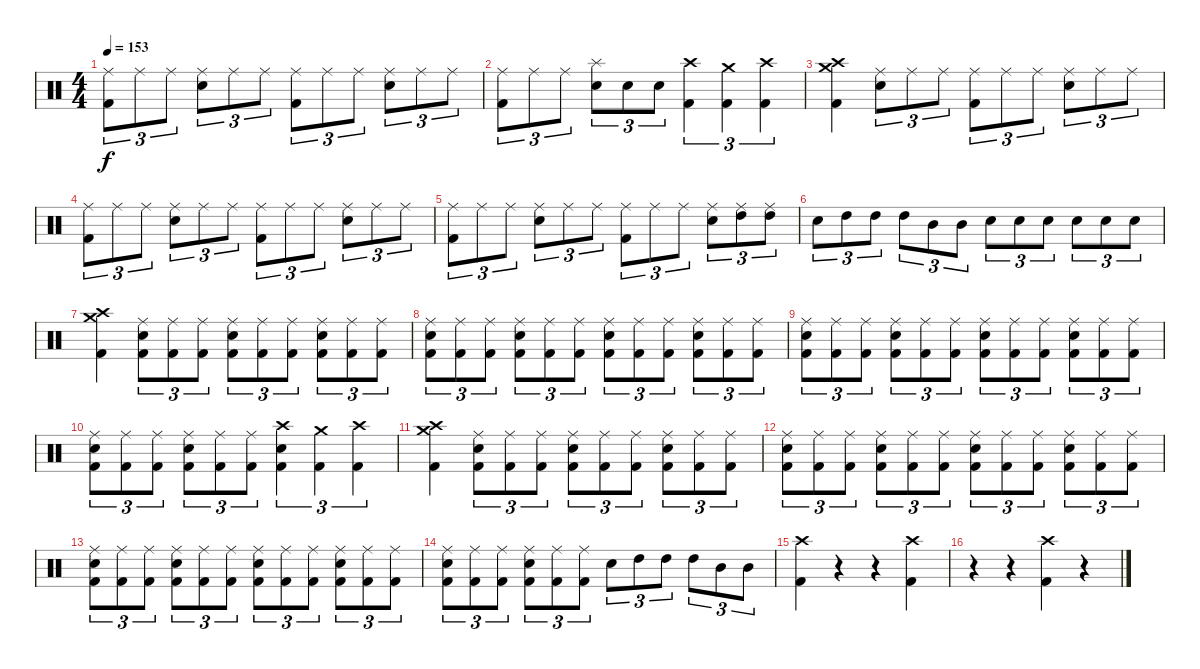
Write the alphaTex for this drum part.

\track "" {instrument percussion}
\staff {score}
\articulation defaults
\ts (4 4)
\tempo 153
\clef neutral
\ks c
("Ride (middle)" "Kick (hit) 2").8{tu (3 2) dy f} "Ride (middle)".8{tu (3 2)} "Ride (middle)".8{tu (3 2)} ("Ride (middle)" "Electric Snare (hit)").8{tu (3 2)} "Ride (middle)".8{tu (3 2)} "Ride (middle)".8{tu (3 2)} ("Ride (middle)" "Kick (hit) 2").8{tu (3 2)} "Ride (middle)".8{tu (3 2)} "Ride (middle)".8{tu (3 2)} ("Ride (middle)" "Electric Snare (hit)").8{tu (3 2)} "Ride (middle)".8{tu (3 2)} "Ride (middle)".8{tu (3 2)} |
("Ride (middle)" "Kick (hit) 2").8{tu (3 2)} "Ride (middle)".8{tu (3 2)} "Ride (middle)".8{tu (3 2)} ("Splash (hit)" "Electric Snare (hit)").8{tu (3 2)} "Electric Snare (hit)".8{tu (3 2)} "Electric Snare (hit)".8{tu (3 2)} ("Crash high (hit)" "Kick (hit) 2").4{tu (3 2)} ("Crash medium (hit)" "Kick (hit) 2").4{tu (3 2)} ("Crash high (hit)" "Kick (hit) 2").4{tu (3 2)} |
("Crash high (hit)" "Crash medium (hit)" "Kick (hit) 2").4 ("Ride (middle)" "Electric Snare (hit)").8{tu (3 2)} "Ride (middle)".8{tu (3 2)} "Ride (middle)".8{tu (3 2)} ("Ride (middle)" "Kick (hit) 2").8{tu (3 2)} "Ride (middle)".8{tu (3 2)} "Ride (middle)".8{tu (3 2)} ("Ride (middle)" "Electric Snare (hit)").8{tu (3 2)} "Ride (middle)".8{tu (3 2)} "Ride (middle)".8{tu (3 2)} |
("Ride (middle)" "Kick (hit) 2").8{tu (3 2)} "Ride (middle)".8{tu (3 2)} "Ride (middle)".8{tu (3 2)} ("Ride (middle)" "Electric Snare (hit)").8{tu (3 2)} "Ride (middle)".8{tu (3 2)} "Ride (middle)".8{tu (3 2)} ("Ride (middle)" "Kick (hit) 2").8{tu (3 2)} "Ride (middle)".8{tu (3 2)} "Ride (middle)".8{tu (3 2)} ("Ride (middle)" "Electric Snare (hit)").8{tu (3 2)} "Ride (middle)".8{tu (3 2)} "Ride (middle)".8{tu (3 2)} |
("Ride (middle)" "Kick (hit) 2").8{tu (3 2)} "Ride (middle)".8{tu (3 2)} "Ride (middle)".8{tu (3 2)} ("Ride (middle)" "Electric Snare (hit)").8{tu (3 2)} "Ride (middle)".8{tu (3 2)} "Ride (middle)".8{tu (3 2)} ("Ride (middle)" "Kick (hit) 2").8{tu (3 2)} "Ride (middle)".8{tu (3 2)} "Ride (middle)".8{tu (3 2)} ("Ride (middle)" "Electric Snare (hit)").8{tu (3 2)} ("Ride (middle)" "High Tom (hit)").8{tu (3 2)} ("Ride (middle)" "High Tom (hit)").8{tu (3 2)} |
"Electric Snare (hit)".8{tu (3 2)} "High Tom (hit)".8{tu (3 2)} "High Tom (hit)".8{tu (3 2)} "High Tom (hit)".8{tu (3 2)} "Mid Tom (hit)".8{tu (3 2)} "Mid Tom (hit)".8{tu (3 2)} "Electric Snare (hit)".8{tu (3 2)} "Electric Snare (hit)".8{tu (3 2)} "Electric Snare (hit)".8{tu (3 2)} "Electric Snare (hit)".8{tu (3 2)} "Electric Snare (hit)".8{tu (3 2)} "Electric Snare (hit)".8{tu (3 2)} |
\section ("" "")
("Crash high (hit)" "Crash medium (hit)" "Kick (hit) 2").4 ("Ride (middle)" "Electric Snare (hit)" "Kick (hit) 2").8{tu (3 2)} ("Ride (middle)" "Kick (hit) 2").8{tu (3 2)} ("Ride (middle)" "Kick (hit) 2").8{tu (3 2)} ("Ride (middle)" "Electric Snare (hit)" "Kick (hit) 2").8{tu (3 2)} ("Ride (middle)" "Kick (hit) 2").8{tu (3 2)} ("Ride (middle)" "Kick (hit) 2").8{tu (3 2)} ("Ride (middle)" "Electric Snare (hit)" "Kick (hit) 2").8{tu (3 2)} ("Ride (middle)" "Kick (hit) 2").8{tu (3 2)} ("Ride (middle)" "Kick (hit) 2").8{tu (3 2)} |
("Ride (middle)" "Electric Snare (hit)" "Kick (hit) 2").8{tu (3 2)} ("Ride (middle)" "Kick (hit) 2").8{tu (3 2)} ("Ride (middle)" "Kick (hit) 2").8{tu (3 2)} ("Ride (middle)" "Electric Snare (hit)" "Kick (hit) 2").8{tu (3 2)} ("Ride (middle)" "Kick (hit) 2").8{tu (3 2)} ("Ride (middle)" "Kick (hit) 2").8{tu (3 2)} ("Ride (middle)" "Electric Snare (hit)" "Kick (hit) 2").8{tu (3 2)} ("Ride (middle)" "Kick (hit) 2").8{tu (3 2)} ("Ride (middle)" "Kick (hit) 2").8{tu (3 2)} ("Ride (middle)" "Electric Snare (hit)" "Kick (hit) 2").8{tu (3 2)} ("Ride (middle)" "Kick (hit) 2").8{tu (3 2)} ("Ride (middle)" "Kick (hit) 2").8{tu (3 2)} |
("Ride (middle)" "Electric Snare (hit)" "Kick (hit) 2").8{tu (3 2)} ("Ride (middle)" "Kick (hit) 2").8{tu (3 2)} ("Ride (middle)" "Kick (hit) 2").8{tu (3 2)} ("Ride (middle)" "Electric Snare (hit)" "Kick (hit) 2").8{tu (3 2)} ("Ride (middle)" "Kick (hit) 2").8{tu (3 2)} ("Ride (middle)" "Kick (hit) 2").8{tu (3 2)} ("Ride (middle)" "Electric Snare (hit)" "Kick (hit) 2").8{tu (3 2)} ("Ride (middle)" "Kick (hit) 2").8{tu (3 2)} ("Ride (middle)" "Kick (hit) 2").8{tu (3 2)} ("Ride (middle)" "Electric Snare (hit)" "Kick (hit) 2").8{tu (3 2)} ("Ride (middle)" "Kick (hit) 2").8{tu (3 2)} ("Ride (middle)" "Kick (hit) 2").8{tu (3 2)} |
("Ride (middle)" "Electric Snare (hit)" "Kick (hit) 2").8{tu (3 2)} ("Ride (middle)" "Kick (hit) 2").8{tu (3 2)} ("Ride (middle)" "Kick (hit) 2").8{tu (3 2)} ("Ride (middle)" "Electric Snare (hit)" "Kick (hit) 2").8{tu (3 2)} ("Ride (middle)" "Kick (hit) 2").8{tu (3 2)} ("Ride (middle)" "Kick (hit) 2").8{tu (3 2)} ("Crash high (hit)" "Electric Snare (hit)" "Kick (hit) 2").4{tu (3 2)} ("Crash medium (hit)" "Kick (hit) 2").4{tu (3 2)} ("Crash high (hit)" "Kick (hit) 2").4{tu (3 2)} |
("Crash high (hit)" "Crash medium (hit)" "Kick (hit) 2").4 ("Ride (middle)" "Electric Snare (hit)" "Kick (hit) 2").8{tu (3 2)} ("Ride (middle)" "Kick (hit) 2").8{tu (3 2)} ("Ride (middle)" "Kick (hit) 2").8{tu (3 2)} ("Ride (middle)" "Electric Snare (hit)" "Kick (hit) 2").8{tu (3 2)} ("Ride (middle)" "Kick (hit) 2").8{tu (3 2)} ("Ride (middle)" "Kick (hit) 2").8{tu (3 2)} ("Ride (middle)" "Electric Snare (hit)" "Kick (hit) 2").8{tu (3 2)} ("Ride (middle)" "Kick (hit) 2").8{tu (3 2)} ("Ride (middle)" "Kick (hit) 2").8{tu (3 2)} |
("Ride (middle)" "Electric Snare (hit)" "Kick (hit) 2").8{tu (3 2)} ("Ride (middle)" "Kick (hit) 2").8{tu (3 2)} ("Ride (middle)" "Kick (hit) 2").8{tu (3 2)} ("Ride (middle)" "Electric Snare (hit)" "Kick (hit) 2").8{tu (3 2)} ("Ride (middle)" "Kick (hit) 2").8{tu (3 2)} ("Ride (middle)" "Kick (hit) 2").8{tu (3 2)} ("Ride (middle)" "Electric Snare (hit)" "Kick (hit) 2").8{tu (3 2)} ("Ride (middle)" "Kick (hit) 2").8{tu (3 2)} ("Ride (middle)" "Kick (hit) 2").8{tu (3 2)} ("Ride (middle)" "Electric Snare (hit)" "Kick (hit) 2").8{tu (3 2)} ("Ride (middle)" "Kick (hit) 2").8{tu (3 2)} ("Ride (middle)" "Kick (hit) 2").8{tu (3 2)} |
("Ride (middle)" "Electric Snare (hit)" "Kick (hit) 2").8{tu (3 2)} ("Ride (middle)" "Kick (hit) 2").8{tu (3 2)} ("Ride (middle)" "Kick (hit) 2").8{tu (3 2)} ("Ride (middle)" "Electric Snare (hit)" "Kick (hit) 2").8{tu (3 2)} ("Ride (middle)" "Kick (hit) 2").8{tu (3 2)} ("Ride (middle)" "Kick (hit) 2").8{tu (3 2)} ("Ride (middle)" "Electric Snare (hit)" "Kick (hit) 2").8{tu (3 2)} ("Ride (middle)" "Kick (hit) 2").8{tu (3 2)} ("Ride (middle)" "Kick (hit) 2").8{tu (3 2)} ("Ride (middle)" "Electric Snare (hit)" "Kick (hit) 2").8{tu (3 2)} ("Ride (middle)" "Kick (hit) 2").8{tu (3 2)} ("Ride (middle)" "Kick (hit) 2").8{tu (3 2)} |
("Ride (middle)" "Electric Snare (hit)" "Kick (hit) 2").8{tu (3 2)} ("Ride (middle)" "Kick (hit) 2").8{tu (3 2)} ("Ride (middle)" "Kick (hit) 2").8{tu (3 2)} ("Ride (middle)" "Electric Snare (hit)" "Kick (hit) 2").8{tu (3 2)} ("Ride (middle)" "Kick (hit) 2").8{tu (3 2)} ("Ride (middle)" "Kick (hit) 2").8{tu (3 2)} "Electric Snare (hit)".8{tu (3 2)} "High Tom (hit)".8{tu (3 2)} "High Tom (hit)".8{tu (3 2)} "High Tom (hit)".8{tu (3 2)} "Mid Tom (hit)".8{tu (3 2)} "Mid Tom (hit)".8{tu (3 2)} |
\section ("" "")
("Crash high (hit)" "Kick (hit) 2").4 r.4{volume 0} r.4 ("Crash high (hit)" "Kick (hit) 2").4{volume 16} |
r.4{volume 0} r.4 ("Crash high (hit)" "Kick (hit) 2").4{volume 16} r.4{volume 0}
